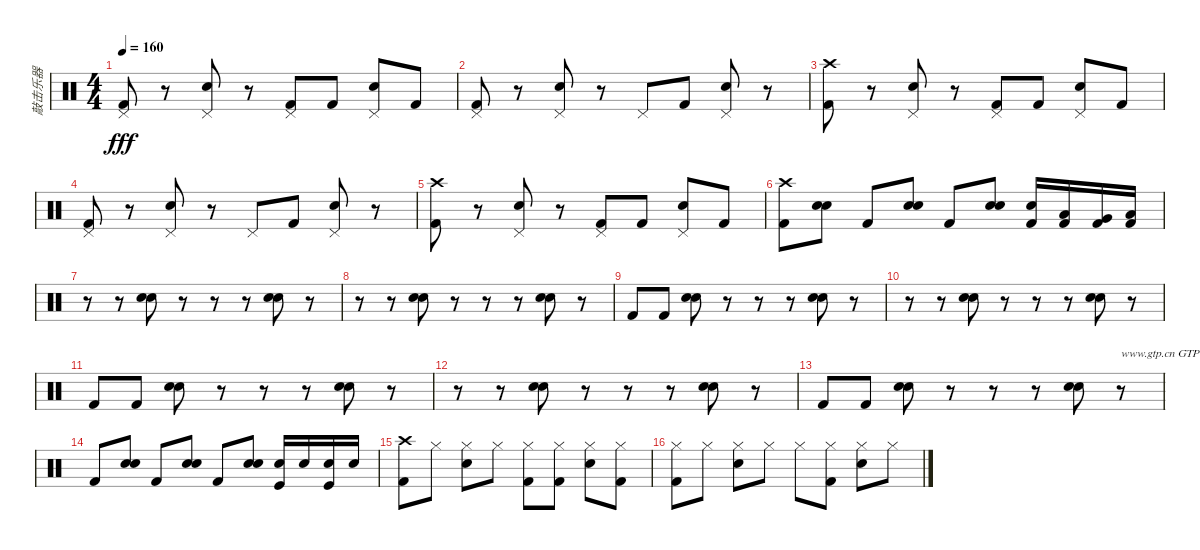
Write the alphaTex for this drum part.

\track ("敲击乐器" "敲击乐器") {instrument percussion}
\staff {score}
\articulation defaults
\ts (4 4)
\tempo 160
\clef neutral
\ks c
("Pedal Hi-Hat (hit)" "Kick (hit) 2").8{dy fff} r.8 ("Pedal Hi-Hat (hit)" "Electric Snare (hit)").8 r.8 ("Pedal Hi-Hat (hit)" "Kick (hit) 2").8 "Kick (hit) 2".8 ("Pedal Hi-Hat (hit)" "Electric Snare (hit)").8 "Kick (hit) 2".8 |
("Pedal Hi-Hat (hit)" "Kick (hit) 2").8 r.8 ("Pedal Hi-Hat (hit)" "Electric Snare (hit)").8 r.8 "Pedal Hi-Hat (hit)".8 "Kick (hit) 2".8 ("Pedal Hi-Hat (hit)" "Electric Snare (hit)").8 r.8 |
("Crash high (hit)" "Kick (hit) 2").8 r.8 ("Pedal Hi-Hat (hit)" "Electric Snare (hit)").8 r.8 ("Pedal Hi-Hat (hit)" "Kick (hit) 2").8 "Kick (hit) 2".8 ("Pedal Hi-Hat (hit)" "Electric Snare (hit)").8 "Kick (hit) 2".8 |
("Pedal Hi-Hat (hit)" "Kick (hit) 2").8 r.8 ("Pedal Hi-Hat (hit)" "Electric Snare (hit)").8 r.8 "Pedal Hi-Hat (hit)".8 "Kick (hit) 2".8 ("Pedal Hi-Hat (hit)" "Electric Snare (hit)").8 r.8 |
("Crash high (hit)" "Kick (hit) 2").8 r.8 ("Pedal Hi-Hat (hit)" "Electric Snare (hit)").8 r.8 ("Pedal Hi-Hat (hit)" "Kick (hit) 2").8 "Kick (hit) 2".8 ("Pedal Hi-Hat (hit)" "Electric Snare (hit)").8 "Kick (hit) 2".8 |
("Crash high (hit)" "Kick (hit) 2").8 ("Snare (hit) 2" "Electric Snare (hit)").8 "Kick (hit) 2".8 ("Snare (hit) 2" "Electric Snare (hit)").8 "Kick (hit) 2".8 ("Snare (hit) 2" "Electric Snare (hit)").8 ("Electric Snare (hit)" "Kick (hit) 2").16 ("Low Tom (hit)" "Kick (hit) 2").16 ("Very Low Tom (hit)" "Kick (hit) 2").16 ("Low Floor Tom (hit)" "Kick (hit) 2").16 |
r.8 r.8 ("Snare (hit) 2" "Electric Snare (hit)").8 r.8 r.8 r.8 ("Snare (hit) 2" "Electric Snare (hit)").8 r.8 |
r.8 r.8 ("Snare (hit) 2" "Electric Snare (hit)").8 r.8 r.8 r.8 ("Snare (hit) 2" "Electric Snare (hit)").8 r.8 |
"Kick (hit) 2".8 "Kick (hit) 2".8 ("Snare (hit) 2" "Electric Snare (hit)").8 r.8 r.8 r.8 ("Snare (hit) 2" "Electric Snare (hit)").8 r.8 |
r.8 r.8 ("Snare (hit) 2" "Electric Snare (hit)").8 r.8 r.8 r.8 ("Snare (hit) 2" "Electric Snare (hit)").8 r.8 |
"Kick (hit) 2".8 "Kick (hit) 2".8 ("Snare (hit) 2" "Electric Snare (hit)").8 r.8 r.8 r.8 ("Snare (hit) 2" "Electric Snare (hit)").8 r.8 |
r.8 r.8 ("Snare (hit) 2" "Electric Snare (hit)").8 r.8 r.8 r.8 ("Snare (hit) 2" "Electric Snare (hit)").8 r.8 |
"Kick (hit) 2".8 "Kick (hit) 2".8 ("Snare (hit) 2" "Electric Snare (hit)").8 r.8 r.8 r.8 ("Snare (hit) 2" "Electric Snare (hit)").8 r.8{txt "www.gtp.cn GTP中文网为您提供优秀的谱子"} |
"Kick (hit) 2".8 ("Snare (hit) 2" "Electric Snare (hit)").8 "Kick (hit) 2".8 ("Snare (hit) 2" "Electric Snare (hit)").8 "Kick (hit) 2".8 ("Snare (hit) 2" "Electric Snare (hit)").8 ("Electric Snare (hit)" "Kick (hit)").16 "Electric Snare (hit)".16 ("Electric Snare (hit)" "Kick (hit)").16 "Electric Snare (hit)".16 |
("Crash high (hit)" "Kick (hit) 2").8 "Hi-Hat (closed)".8 ("Hi-Hat (closed)" "Electric Snare (hit)").8 "Hi-Hat (closed)".8 ("Hi-Hat (closed)" "Kick (hit) 2").8 ("Hi-Hat (closed)" "Kick (hit) 2").8 ("Hi-Hat (closed)" "Electric Snare (hit)").8 ("Hi-Hat (closed)" "Kick (hit) 2").8 |
("Hi-Hat (closed)" "Kick (hit) 2").8 "Hi-Hat (closed)".8 ("Hi-Hat (closed)" "Electric Snare (hit)").8 "Hi-Hat (closed)".8 "Hi-Hat (closed)".8 ("Hi-Hat (closed)" "Kick (hit) 2").8 ("Hi-Hat (closed)" "Electric Snare (hit)").8 "Hi-Hat (closed)".8
